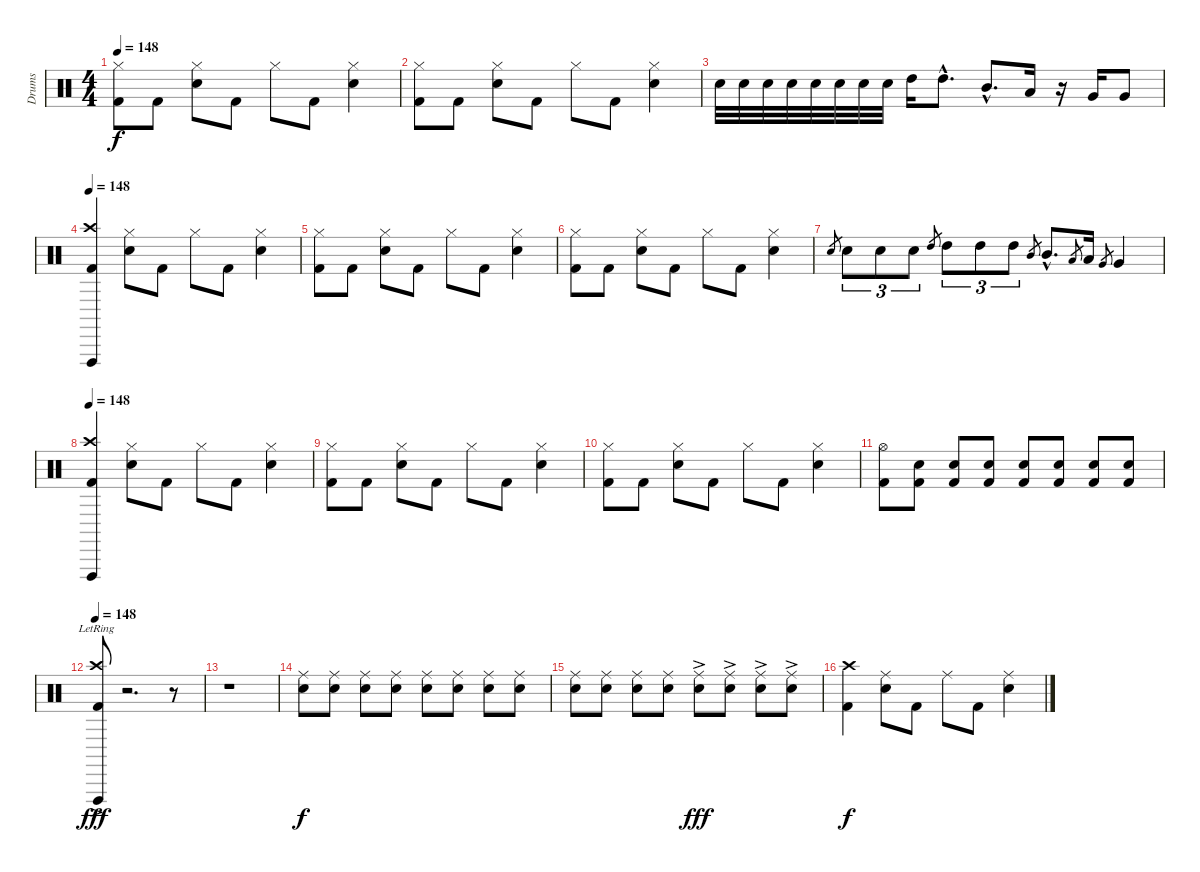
\track ("Drums" "Drums") {instrument percussion}
\staff {score}
\articulation defaults
\ts (4 4)
\tempo 148
\clef neutral
\ks c
("Hi-Hat (closed)" "Kick (hit) 2").8{dy f} "Kick (hit) 2".8 ("Hi-Hat (closed)" "Snare (hit) 2").8 "Kick (hit) 2".8 "Hi-Hat (closed)".8 "Kick (hit) 2".8 ("Hi-Hat (closed)" "Snare (hit) 2").4 |
("Hi-Hat (closed)" "Kick (hit) 2").8 "Kick (hit) 2".8 ("Hi-Hat (closed)" "Snare (hit) 2").8 "Kick (hit) 2".8 "Hi-Hat (closed)".8 "Kick (hit) 2".8 ("Hi-Hat (closed)" "Snare (hit) 2").4 |
"Snare (hit) 2".32 "Snare (hit) 2".32 "Snare (hit) 2".32 "Snare (hit) 2".32 "Snare (hit) 2".32 "Snare (hit) 2".32 "Snare (hit) 2".32 "Snare (hit) 2".32 "High Tom (hit)".16 "High Tom (hit)"{hac}.8{d} "Mid Tom (hit)"{hac}.8{d} "Low Tom (hit)".16 r.16 "Very Low Tom (hit)".16 "Very Low Tom (hit)".8 |
\tempo 148
("Crash high (hit)" "Vibraslap (hit)" "Kick (hit) 2").4 ("Hi-Hat (closed)" "Snare (hit) 2").8 "Kick (hit) 2".8 "Hi-Hat (closed)".8 "Kick (hit) 2".8 ("Hi-Hat (closed)" "Snare (hit) 2").4 |
("Hi-Hat (closed)" "Kick (hit) 2").8 "Kick (hit) 2".8 ("Hi-Hat (closed)" "Snare (hit) 2").8 "Kick (hit) 2".8 "Hi-Hat (closed)".8 "Kick (hit) 2".8 ("Hi-Hat (closed)" "Snare (hit) 2").4 |
("Hi-Hat (closed)" "Kick (hit) 2").8 "Kick (hit) 2".8 ("Hi-Hat (closed)" "Snare (hit) 2").8 "Kick (hit) 2".8 "Hi-Hat (closed)".8 "Kick (hit) 2".8 ("Hi-Hat (closed)" "Snare (hit) 2").4 |
"Snare (hit) 2".8{gr} "Snare (hit) 2".8{tu (3 2)} "Snare (hit) 2".8{tu (3 2)} "Snare (hit) 2".8{tu (3 2)} "High Tom (hit)".8{gr} "High Tom (hit)".8{tu (3 2)} "High Tom (hit)".8{tu (3 2)} "High Tom (hit)".8{tu (3 2)} "Mid Tom (hit)".8{gr} "Mid Tom (hit)"{hac}.8{d} "Low Tom (hit)".8{gr} "Low Tom (hit)".16 "Very Low Tom (hit)".8{gr} "Very Low Tom (hit)".4 |
\tempo 148
("Crash high (hit)" "Vibraslap (hit)" "Kick (hit) 2").4 ("Hi-Hat (closed)" "Snare (hit) 2").8 "Kick (hit) 2".8 "Hi-Hat (closed)".8 "Kick (hit) 2".8 ("Hi-Hat (closed)" "Snare (hit) 2").4 |
("Hi-Hat (closed)" "Kick (hit) 2").8 "Kick (hit) 2".8 ("Hi-Hat (closed)" "Snare (hit) 2").8 "Kick (hit) 2".8 "Hi-Hat (closed)".8 "Kick (hit) 2".8 ("Hi-Hat (closed)" "Snare (hit) 2").4 |
("Hi-Hat (closed)" "Kick (hit) 2").8 "Kick (hit) 2".8 ("Hi-Hat (closed)" "Snare (hit) 2").8 "Kick (hit) 2".8 "Hi-Hat (closed)".8 "Kick (hit) 2".8 ("Hi-Hat (closed)" "Snare (hit) 2").4 |
("Hi-Hat (open)" "Kick (hit) 2").8 ("Snare (hit) 2" "Kick (hit) 2").8 ("Snare (hit) 2" "Kick (hit) 2").8 ("Snare (hit) 2" "Kick (hit) 2").8 ("Snare (hit) 2" "Kick (hit) 2").8 ("Snare (hit) 2" "Kick (hit) 2").8 ("Snare (hit) 2" "Kick (hit) 2").8 ("Snare (hit) 2" "Kick (hit) 2").8 |
\tempo 148
("Crash high (hit)"{ac} "Vibraslap (hit)"{lr} "Kick (hit) 2"{ac}).8{dy fff} r.2{d} r.8 |
r.1{volume 0} |
("Ride (middle)" "Snare (hit) 2").8{dy f volume 16} ("Ride (middle)" "Snare (hit) 2").8 ("Ride (middle)" "Snare (hit) 2").8 ("Ride (middle)" "Snare (hit) 2").8 ("Ride (middle)" "Snare (hit) 2").8 ("Ride (middle)" "Snare (hit) 2").8 ("Ride (middle)" "Snare (hit) 2").8 ("Ride (middle)" "Snare (hit) 2").8 |
("Ride (middle)" "Snare (hit) 2").8 ("Ride (middle)" "Snare (hit) 2").8 ("Ride (middle)" "Snare (hit) 2").8 ("Ride (middle)" "Snare (hit) 2").8 ("Ride (middle)"{ac} "Snare (hit) 2"{ac}).8{dy fff} ("Ride (middle)"{ac} "Snare (hit) 2"{ac}).8 ("Ride (middle)"{ac} "Snare (hit) 2"{ac}).8 ("Ride (middle)"{ac} "Snare (hit) 2"{ac}).8 |
("Crash high (hit)" "Kick (hit) 2").4{dy f} ("Ride (middle)" "Snare (hit) 2").8 "Kick (hit) 2".8 "Ride (middle)".8 "Kick (hit) 2".8 ("Ride (middle)" "Snare (hit) 2").4
